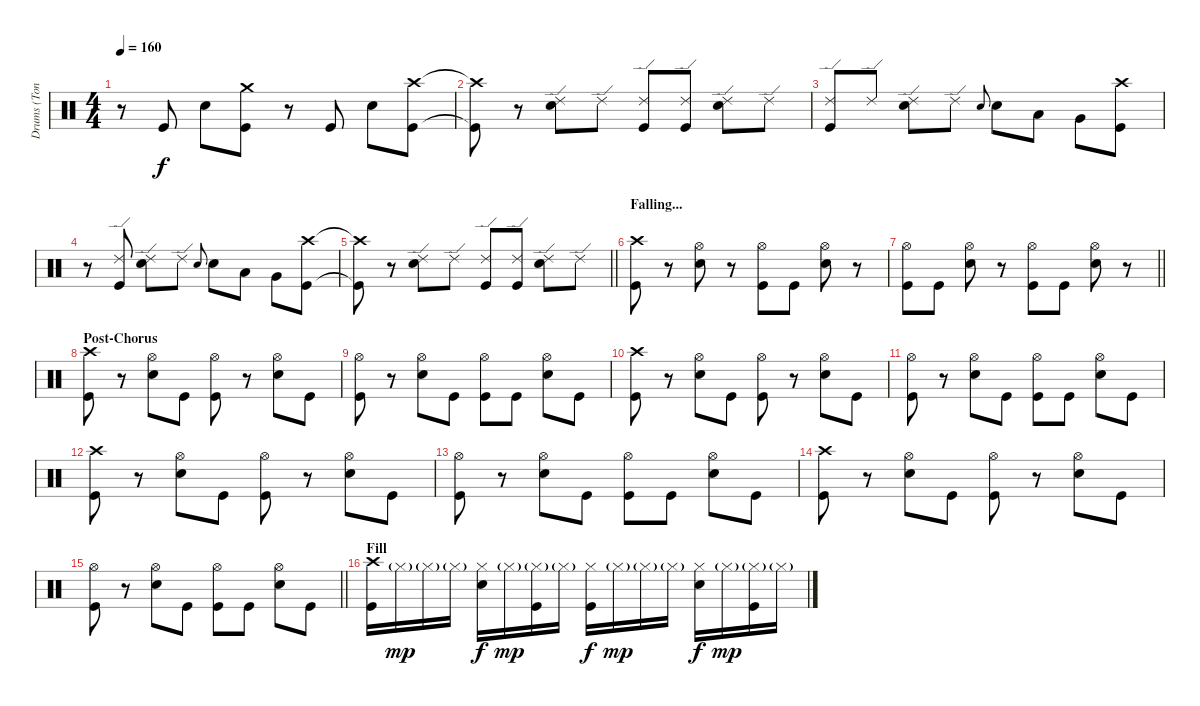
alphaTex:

\track ("Drums (Tony)" "Drums (Ton") {instrument percussion}
\staff {score}
\articulation defaults
\ts (4 4)
\tempo 160
\clef neutral
\ks c
r.8{dy f} "Kick (hit)".8 "Snare (hit) 2".8 ("Crash medium (hit)" "Kick (hit)").8 r.8 "Kick (hit)".8 "Snare (hit) 2".8 ("Crash high (hit)" "Kick (hit)").8 |
("Crash high (hit)"{t} "Kick (hit)"{t}).8 r.8 ("Ride (edge) 2" "Snare (hit) 2").8 "Ride (edge) 2".8 ("Ride (edge) 2" "Kick (hit)").8 ("Ride (edge) 2" "Kick (hit)").8 ("Ride (edge) 2" "Snare (hit) 2").8 "Ride (edge) 2".8 |
("Ride (edge) 2" "Kick (hit)").8 "Ride (edge) 2".8 ("Ride (edge) 2" "Snare (hit) 2").8 "Ride (edge) 2".8 "Snare (hit) 2".8{gr onbeat} "Snare (hit) 2".8 "Low Tom (hit)".8 "Very Low Tom (hit)".8 ("Crash high (hit)" "Kick (hit)").8 |
r.8 ("Ride (edge) 2" "Kick (hit)").8 ("Ride (edge) 2" "Snare (hit) 2").8 "Ride (edge) 2".8 "Snare (hit) 2".8{gr onbeat} "Snare (hit) 2".8 "Low Tom (hit)".8 "Very Low Tom (hit)".8 ("Crash high (hit)" "Kick (hit)").8 |
\barLineRight lightlight
("Crash high (hit)"{t} "Kick (hit)"{t}).8 r.8 ("Ride (edge) 2" "Snare (hit) 2").8 "Ride (edge) 2".8 ("Ride (edge) 2" "Kick (hit)").8 ("Ride (edge) 2" "Kick (hit)").8 ("Ride (edge) 2" "Snare (hit) 2").8 "Ride (edge) 2".8 |
\section ("" "Falling...")
("Crash high (hit)" "Kick (hit)").8 r.8 ("Hi-Hat (open)" "Snare (hit) 2").8 r.8 ("Hi-Hat (open)" "Kick (hit)").8 "Kick (hit)".8 ("Hi-Hat (open)" "Snare (hit) 2").8 r.8 |
\barLineRight lightlight
("Hi-Hat (open)" "Kick (hit)").8 "Kick (hit)".8 ("Hi-Hat (open)" "Snare (hit) 2").8 r.8 ("Hi-Hat (open)" "Kick (hit)").8 "Kick (hit)".8 ("Hi-Hat (open)" "Snare (hit) 2").8 r.8 |
\section ("" "Post-Chorus")
("Crash high (hit)" "Kick (hit)").8 r.8 ("Hi-Hat (open)" "Snare (hit) 2").8 "Kick (hit)".8 ("Hi-Hat (open)" "Kick (hit)").8 r.8 ("Hi-Hat (open)" "Snare (hit) 2").8 "Kick (hit)".8 |
("Hi-Hat (open)" "Kick (hit)").8 r.8 ("Hi-Hat (open)" "Snare (hit) 2").8 "Kick (hit)".8 ("Hi-Hat (open)" "Kick (hit)").8 "Kick (hit)".8 ("Hi-Hat (open)" "Snare (hit) 2").8 "Kick (hit)".8 |
("Crash high (hit)" "Kick (hit)").8 r.8 ("Hi-Hat (open)" "Snare (hit) 2").8 "Kick (hit)".8 ("Hi-Hat (open)" "Kick (hit)").8 r.8 ("Hi-Hat (open)" "Snare (hit) 2").8 "Kick (hit)".8 |
("Hi-Hat (open)" "Kick (hit)").8 r.8 ("Hi-Hat (open)" "Snare (hit) 2").8 "Kick (hit)".8 ("Hi-Hat (open)" "Kick (hit)").8 "Kick (hit)".8 ("Hi-Hat (open)" "Snare (hit) 2").8 "Kick (hit)".8 |
("Crash high (hit)" "Kick (hit)").8 r.8 ("Hi-Hat (open)" "Snare (hit) 2").8 "Kick (hit)".8 ("Hi-Hat (open)" "Kick (hit)").8 r.8 ("Hi-Hat (open)" "Snare (hit) 2").8 "Kick (hit)".8 |
("Hi-Hat (open)" "Kick (hit)").8 r.8 ("Hi-Hat (open)" "Snare (hit) 2").8 "Kick (hit)".8 ("Hi-Hat (open)" "Kick (hit)").8 "Kick (hit)".8 ("Hi-Hat (open)" "Snare (hit) 2").8 "Kick (hit)".8 |
("Crash high (hit)" "Kick (hit)").8 r.8 ("Hi-Hat (open)" "Snare (hit) 2").8 "Kick (hit)".8 ("Hi-Hat (open)" "Kick (hit)").8 r.8 ("Hi-Hat (open)" "Snare (hit) 2").8 "Kick (hit)".8 |
\barLineRight lightlight
("Hi-Hat (open)" "Kick (hit)").8 r.8 ("Hi-Hat (open)" "Snare (hit) 2").8 "Kick (hit)".8 ("Hi-Hat (open)" "Kick (hit)").8 "Kick (hit)".8 ("Hi-Hat (open)" "Snare (hit) 2").8 "Kick (hit)".8 |
\section ("" "Fill")
("Crash high (hit)" "Kick (hit)").16 "Hi-Hat (closed)"{g}.16{dy mp} "Hi-Hat (closed)"{g}.16 "Hi-Hat (closed)"{g}.16 ("Hi-Hat (closed)" "Snare (hit) 2").16{dy f} "Hi-Hat (closed)"{g}.16{dy mp} ("Hi-Hat (closed)"{g} "Kick (hit)").16 "Hi-Hat (closed)"{g}.16 ("Hi-Hat (closed)" "Kick (hit)").16{dy f} "Hi-Hat (closed)"{g}.16{dy mp} "Hi-Hat (closed)"{g}.16 "Hi-Hat (closed)"{g}.16 ("Hi-Hat (closed)" "Snare (hit) 2").16{dy f} "Hi-Hat (closed)"{g}.16{dy mp} ("Hi-Hat (closed)"{g} "Kick (hit)").16 "Hi-Hat (closed)"{g}.16
